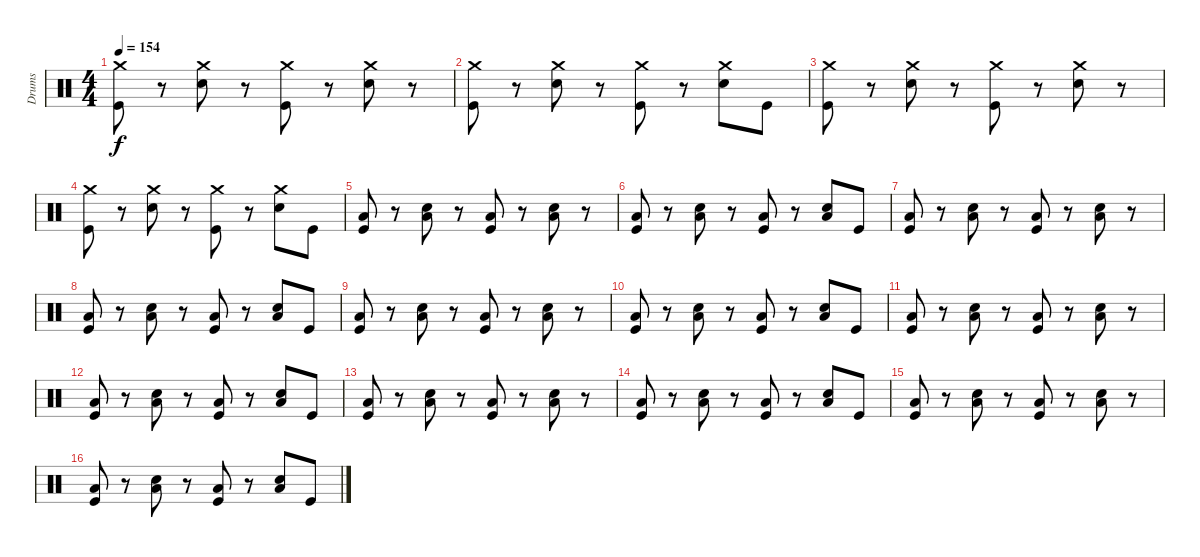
\track ("Drums" "Drums") {instrument percussion}
\staff {score}
\articulation defaults
\ts (4 4)
\tempo 154
\clef neutral
\ks c
("Crash medium (hit)" "Kick (hit)").8{dy f} r.8 ("Crash medium (hit)" "Electric Snare (hit)").8 r.8 ("Crash medium (hit)" "Kick (hit)").8 r.8 ("Crash medium (hit)" "Electric Snare (hit)").8 r.8 |
("Crash medium (hit)" "Kick (hit)").8 r.8 ("Crash medium (hit)" "Electric Snare (hit)").8 r.8 ("Crash medium (hit)" "Kick (hit)").8 r.8 ("Crash medium (hit)" "Electric Snare (hit)").8 "Kick (hit)".8 |
("Crash medium (hit)" "Kick (hit)").8 r.8 ("Crash medium (hit)" "Electric Snare (hit)").8 r.8 ("Crash medium (hit)" "Kick (hit)").8 r.8 ("Crash medium (hit)" "Electric Snare (hit)").8 r.8 |
("Crash medium (hit)" "Kick (hit)").8 r.8 ("Crash medium (hit)" "Electric Snare (hit)").8 r.8 ("Crash medium (hit)" "Kick (hit)").8 r.8 ("Crash medium (hit)" "Electric Snare (hit)").8 "Kick (hit)".8 |
("Low Tom (hit)" "Kick (hit)").8 r.8 ("Low Tom (hit)" "Electric Snare (hit)").8 r.8 ("Low Tom (hit)" "Kick (hit)").8 r.8 ("Low Tom (hit)" "Electric Snare (hit)").8 r.8 |
("Low Tom (hit)" "Kick (hit)").8 r.8 ("Low Tom (hit)" "Electric Snare (hit)").8 r.8 ("Low Tom (hit)" "Kick (hit)").8 r.8 ("Low Tom (hit)" "Electric Snare (hit)").8 "Kick (hit)".8 |
("Low Tom (hit)" "Kick (hit)").8 r.8 ("Low Tom (hit)" "Electric Snare (hit)").8 r.8 ("Low Tom (hit)" "Kick (hit)").8 r.8 ("Low Tom (hit)" "Electric Snare (hit)").8 r.8 |
("Low Tom (hit)" "Kick (hit)").8 r.8 ("Low Tom (hit)" "Electric Snare (hit)").8 r.8 ("Low Tom (hit)" "Kick (hit)").8 r.8 ("Low Tom (hit)" "Electric Snare (hit)").8 "Kick (hit)".8 |
("Low Tom (hit)" "Kick (hit)").8 r.8 ("Low Tom (hit)" "Electric Snare (hit)").8 r.8 ("Low Tom (hit)" "Kick (hit)").8 r.8 ("Low Tom (hit)" "Electric Snare (hit)").8 r.8 |
("Low Tom (hit)" "Kick (hit)").8 r.8 ("Low Tom (hit)" "Electric Snare (hit)").8 r.8 ("Low Tom (hit)" "Kick (hit)").8 r.8 ("Low Tom (hit)" "Electric Snare (hit)").8 "Kick (hit)".8 |
("Low Tom (hit)" "Kick (hit)").8 r.8 ("Low Tom (hit)" "Electric Snare (hit)").8 r.8 ("Low Tom (hit)" "Kick (hit)").8 r.8 ("Low Tom (hit)" "Electric Snare (hit)").8 r.8 |
("Low Tom (hit)" "Kick (hit)").8 r.8 ("Low Tom (hit)" "Electric Snare (hit)").8 r.8 ("Low Tom (hit)" "Kick (hit)").8 r.8 ("Low Tom (hit)" "Electric Snare (hit)").8 "Kick (hit)".8 |
("Low Tom (hit)" "Kick (hit)").8 r.8 ("Low Tom (hit)" "Electric Snare (hit)").8 r.8 ("Low Tom (hit)" "Kick (hit)").8 r.8 ("Low Tom (hit)" "Electric Snare (hit)").8 r.8 |
("Low Tom (hit)" "Kick (hit)").8 r.8 ("Low Tom (hit)" "Electric Snare (hit)").8 r.8 ("Low Tom (hit)" "Kick (hit)").8 r.8 ("Low Tom (hit)" "Electric Snare (hit)").8 "Kick (hit)".8 |
("Low Tom (hit)" "Kick (hit)").8 r.8 ("Low Tom (hit)" "Electric Snare (hit)").8 r.8 ("Low Tom (hit)" "Kick (hit)").8 r.8 ("Low Tom (hit)" "Electric Snare (hit)").8 r.8 |
("Low Tom (hit)" "Kick (hit)").8 r.8 ("Low Tom (hit)" "Electric Snare (hit)").8 r.8 ("Low Tom (hit)" "Kick (hit)").8 r.8 ("Low Tom (hit)" "Electric Snare (hit)").8 "Kick (hit)".8
